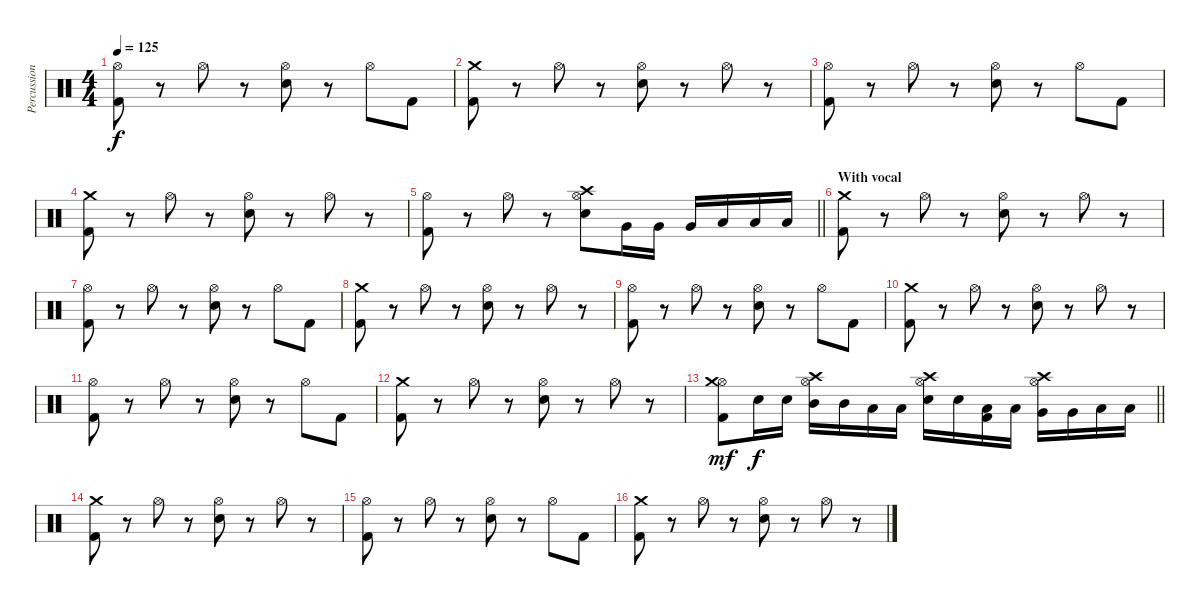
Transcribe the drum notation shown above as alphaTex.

\track ("Percussion" "Percussion") {instrument percussion}
\staff {score}
\articulation defaults
\ts (4 4)
\tempo 125
\clef neutral
\ks c
("Hi-Hat (open)" "Kick (hit) 2").8{dy f} r.8 "Hi-Hat (open)".8 r.8 ("Hi-Hat (open)" "Electric Snare (hit)").8 r.8 "Hi-Hat (open)".8 "Kick (hit) 2".8 |
("Crash medium (hit)" "Kick (hit) 2").8 r.8 "Hi-Hat (open)".8 r.8 ("Hi-Hat (open)" "Electric Snare (hit)").8 r.8 "Hi-Hat (open)".8 r.8 |
("Hi-Hat (open)" "Kick (hit) 2").8 r.8 "Hi-Hat (open)".8 r.8 ("Hi-Hat (open)" "Electric Snare (hit)").8 r.8 "Hi-Hat (open)".8 "Kick (hit) 2".8 |
("Crash medium (hit)" "Kick (hit) 2").8 r.8 "Hi-Hat (open)".8 r.8 ("Hi-Hat (open)" "Electric Snare (hit)").8 r.8 "Hi-Hat (open)".8 r.8 |
\barLineRight lightlight
("Hi-Hat (open)" "Kick (hit) 2").8 r.8 "Hi-Hat (open)".8 r.8 ("Hi-Hat (open)" "Crash high (hit)" "Electric Snare (hit)").8 "Very Low Tom (hit)".16 "Very Low Tom (hit)".16 "Very Low Tom (hit)".16 "Low Tom (hit)".16 "Low Tom (hit)".16 "Low Floor Tom (hit)".16 |
\section ("" "With vocal")
("Crash medium (hit)" "Kick (hit) 2").8 r.8 "Hi-Hat (open)".8 r.8 ("Hi-Hat (open)" "Electric Snare (hit)").8 r.8 "Hi-Hat (open)".8 r.8 |
("Hi-Hat (open)" "Kick (hit) 2").8 r.8 "Hi-Hat (open)".8 r.8 ("Hi-Hat (open)" "Electric Snare (hit)").8 r.8 "Hi-Hat (open)".8 "Kick (hit) 2".8 |
("Crash medium (hit)" "Kick (hit) 2").8 r.8 "Hi-Hat (open)".8 r.8 ("Hi-Hat (open)" "Electric Snare (hit)").8 r.8 "Hi-Hat (open)".8 r.8 |
("Hi-Hat (open)" "Kick (hit) 2").8 r.8 "Hi-Hat (open)".8 r.8 ("Hi-Hat (open)" "Electric Snare (hit)").8 r.8 "Hi-Hat (open)".8 "Kick (hit) 2".8 |
("Crash medium (hit)" "Kick (hit) 2").8 r.8 "Hi-Hat (open)".8 r.8 ("Hi-Hat (open)" "Electric Snare (hit)").8 r.8 "Hi-Hat (open)".8 r.8 |
("Hi-Hat (open)" "Kick (hit) 2").8 r.8 "Hi-Hat (open)".8 r.8 ("Hi-Hat (open)" "Electric Snare (hit)").8 r.8 "Hi-Hat (open)".8 "Kick (hit) 2".8 |
("Crash medium (hit)" "Kick (hit) 2").8 r.8 "Hi-Hat (open)".8 r.8 ("Hi-Hat (open)" "Electric Snare (hit)").8 r.8 "Hi-Hat (open)".8 r.8 |
\barLineRight lightlight
("Kick (hit) 2" "Hi-Hat (open)" "Crash medium (hit)").8{dy mf} "Snare (hit) 2".16{dy f} "Snare (hit) 2".16 ("Hi-Hat (open)" "Crash high (hit)" "Mid Tom (hit)").16 "Mid Tom (hit)".16 "Low Tom (hit)".16 "Low Tom (hit)".16 ("Hi-Hat (open)" "Crash high (hit)" "Snare (hit) 2").16 "Snare (hit) 2".16 ("Kick (hit) 2" "Low Tom (hit)").16 "Low Tom (hit)".16 ("Hi-Hat (open)" "Crash high (hit)" "Very Low Tom (hit)").16 "Very Low Tom (hit)".16 "Low Floor Tom (hit)".16 "Low Floor Tom (hit)".16 |
("Crash medium (hit)" "Kick (hit) 2").8 r.8 "Hi-Hat (open)".8 r.8 ("Hi-Hat (open)" "Electric Snare (hit)").8 r.8 "Hi-Hat (open)".8 r.8 |
("Hi-Hat (open)" "Kick (hit) 2").8 r.8 "Hi-Hat (open)".8 r.8 ("Hi-Hat (open)" "Electric Snare (hit)").8 r.8 "Hi-Hat (open)".8 "Kick (hit) 2".8 |
("Crash medium (hit)" "Kick (hit) 2").8 r.8 "Hi-Hat (open)".8 r.8 ("Hi-Hat (open)" "Electric Snare (hit)").8 r.8 "Hi-Hat (open)".8 r.8
